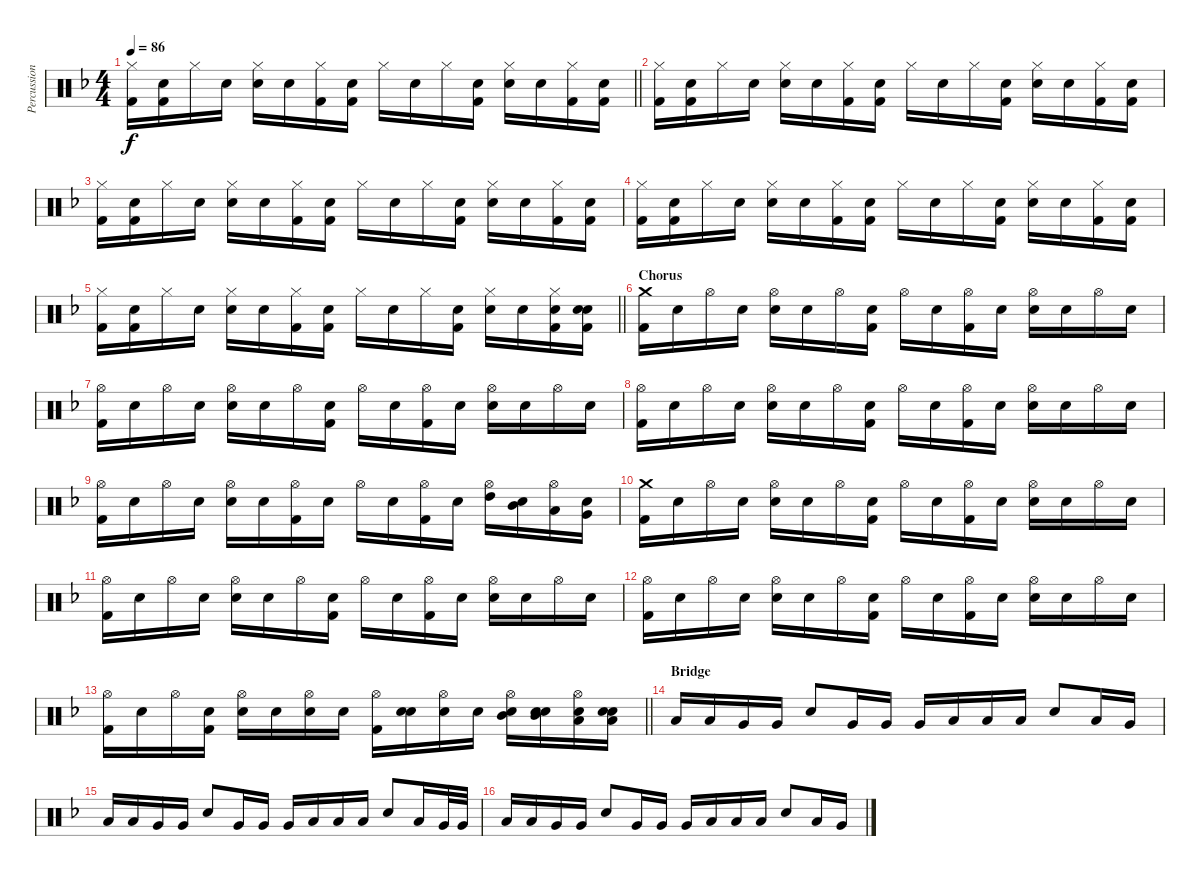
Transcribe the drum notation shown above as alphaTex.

\track ("Percussion" "Percussion") {instrument percussion}
\staff {score}
\articulation defaults
\ts (4 4)
\tempo 86
\clef neutral
\barLineRight lightlight
\ks f
("Hi-Hat (closed)" "Kick (hit) 2").16{dy f} ("Snare (hit)" "Kick (hit) 2").16 "Hi-Hat (closed)".16 "Snare (hit)".16 ("Hi-Hat (closed)" "Electric Snare (hit)").16 "Snare (hit)".16 ("Hi-Hat (closed)" "Kick (hit) 2").16 ("Snare (hit)" "Kick (hit) 2").16 "Hi-Hat (closed)".16 "Snare (hit)".16 "Hi-Hat (closed)".16 ("Snare (hit)" "Kick (hit) 2").16 ("Hi-Hat (closed)" "Electric Snare (hit)").16 "Snare (hit)".16 ("Hi-Hat (closed)" "Kick (hit) 2").16 ("Snare (hit)" "Kick (hit) 2").16 |
("Hi-Hat (closed)" "Kick (hit) 2").16 ("Snare (hit)" "Kick (hit) 2").16 "Hi-Hat (closed)".16 "Snare (hit)".16 ("Hi-Hat (closed)" "Electric Snare (hit)").16 "Snare (hit)".16 ("Hi-Hat (closed)" "Kick (hit) 2").16 ("Snare (hit)" "Kick (hit) 2").16 "Hi-Hat (closed)".16 "Snare (hit)".16 "Hi-Hat (closed)".16 ("Snare (hit)" "Kick (hit) 2").16 ("Hi-Hat (closed)" "Electric Snare (hit)").16 "Snare (hit)".16 ("Hi-Hat (closed)" "Kick (hit) 2").16 ("Snare (hit)" "Kick (hit) 2").16 |
("Hi-Hat (closed)" "Kick (hit) 2").16 ("Snare (hit)" "Kick (hit) 2").16 "Hi-Hat (closed)".16 "Snare (hit)".16 ("Hi-Hat (closed)" "Electric Snare (hit)").16 "Snare (hit)".16 ("Hi-Hat (closed)" "Kick (hit) 2").16 ("Snare (hit)" "Kick (hit) 2").16 "Hi-Hat (closed)".16 "Snare (hit)".16 "Hi-Hat (closed)".16 ("Snare (hit)" "Kick (hit) 2").16 ("Hi-Hat (closed)" "Electric Snare (hit)").16 "Snare (hit)".16 ("Hi-Hat (closed)" "Kick (hit) 2").16 ("Snare (hit)" "Kick (hit) 2").16 |
("Hi-Hat (closed)" "Kick (hit) 2").16 ("Snare (hit)" "Kick (hit) 2").16 "Hi-Hat (closed)".16 "Snare (hit)".16 ("Hi-Hat (closed)" "Electric Snare (hit)").16 "Snare (hit)".16 ("Hi-Hat (closed)" "Kick (hit) 2").16 ("Snare (hit)" "Kick (hit) 2").16 "Hi-Hat (closed)".16 "Snare (hit)".16 "Hi-Hat (closed)".16 ("Snare (hit)" "Kick (hit) 2").16 ("Hi-Hat (closed)" "Electric Snare (hit)").16 "Snare (hit)".16 ("Hi-Hat (closed)" "Kick (hit) 2").16 ("Snare (hit)" "Kick (hit) 2").16 |
\barLineRight lightlight
("Hi-Hat (closed)" "Kick (hit) 2").16 ("Snare (hit)" "Kick (hit) 2").16 "Hi-Hat (closed)".16 "Snare (hit)".16 ("Hi-Hat (closed)" "Electric Snare (hit)").16 "Snare (hit)".16 ("Hi-Hat (closed)" "Kick (hit) 2").16 ("Snare (hit)" "Kick (hit) 2").16 "Hi-Hat (closed)".16 "Snare (hit)".16 "Hi-Hat (closed)".16 ("Snare (hit)" "Kick (hit) 2").16 ("Hi-Hat (closed)" "Electric Snare (hit)").16 "Snare (hit)".16 ("Hi-Hat (closed)" "Electric Snare (hit)" "Kick (hit) 2").16 ("Snare (hit)" "Electric Snare (hit)" "Kick (hit) 2").16 |
\section ("" "Chorus")
("Crash medium (hit)" "Kick (hit) 2").16 "Snare (hit)".16 "Hi-Hat (open)".16 "Snare (hit)".16 ("Hi-Hat (open)" "Electric Snare (hit)").16 "Snare (hit)".16 "Hi-Hat (open)".16 ("Snare (hit)" "Kick (hit) 2").16 "Hi-Hat (open)".16 "Snare (hit)".16 ("Hi-Hat (open)" "Kick (hit) 2").16 "Snare (hit)".16 ("Hi-Hat (open)" "Electric Snare (hit)").16 "Snare (hit)".16 "Hi-Hat (open)".16 "Snare (hit)".16 |
("Hi-Hat (open)" "Kick (hit) 2").16 "Snare (hit)".16 "Hi-Hat (open)".16 "Snare (hit)".16 ("Hi-Hat (open)" "Electric Snare (hit)").16 "Snare (hit)".16 "Hi-Hat (open)".16 ("Snare (hit)" "Kick (hit) 2").16 "Hi-Hat (open)".16 "Snare (hit)".16 ("Hi-Hat (open)" "Kick (hit) 2").16 "Snare (hit)".16 ("Hi-Hat (open)" "Electric Snare (hit)").16 "Snare (hit)".16 "Hi-Hat (open)".16 "Snare (hit)".16 |
("Hi-Hat (open)" "Kick (hit) 2").16 "Snare (hit)".16 "Hi-Hat (open)".16 "Snare (hit)".16 ("Hi-Hat (open)" "Electric Snare (hit)").16 "Snare (hit)".16 "Hi-Hat (open)".16 ("Snare (hit)" "Kick (hit) 2").16 "Hi-Hat (open)".16 "Snare (hit)".16 ("Hi-Hat (open)" "Kick (hit) 2").16 "Snare (hit)".16 ("Hi-Hat (open)" "Electric Snare (hit)").16 "Snare (hit)".16 "Hi-Hat (open)".16 "Snare (hit)".16 |
("Hi-Hat (open)" "Kick (hit) 2").16 "Snare (hit)".16 "Hi-Hat (open)".16 "Snare (hit)".16 ("Hi-Hat (open)" "Electric Snare (hit)").16 "Snare (hit)".16 ("Hi-Hat (open)" "Kick (hit) 2").16 "Snare (hit)".16 "Hi-Hat (open)".16 "Snare (hit)".16 ("Hi-Hat (open)" "Kick (hit) 2").16 "Snare (hit)".16 ("Hi-Hat (open)" "High Tom (hit)").16 ("Snare (hit)" "Mid Tom (hit)").16 ("Hi-Hat (open)" "Low Tom (hit)").16 ("Snare (hit)" "Very Low Tom (hit)").16 |
("Crash medium (hit)" "Kick (hit) 2").16 "Snare (hit)".16 "Hi-Hat (open)".16 "Snare (hit)".16 ("Hi-Hat (open)" "Electric Snare (hit)").16 "Snare (hit)".16 "Hi-Hat (open)".16 ("Snare (hit)" "Kick (hit) 2").16 "Hi-Hat (open)".16 "Snare (hit)".16 ("Hi-Hat (open)" "Kick (hit) 2").16 "Snare (hit)".16 ("Hi-Hat (open)" "Electric Snare (hit)").16 "Snare (hit)".16 "Hi-Hat (open)".16 "Snare (hit)".16 |
("Hi-Hat (open)" "Kick (hit) 2").16 "Snare (hit)".16 "Hi-Hat (open)".16 "Snare (hit)".16 ("Hi-Hat (open)" "Electric Snare (hit)").16 "Snare (hit)".16 "Hi-Hat (open)".16 ("Snare (hit)" "Kick (hit) 2").16 "Hi-Hat (open)".16 "Snare (hit)".16 ("Hi-Hat (open)" "Kick (hit) 2").16 "Snare (hit)".16 ("Hi-Hat (open)" "Electric Snare (hit)").16 "Snare (hit)".16 "Hi-Hat (open)".16 "Snare (hit)".16 |
("Hi-Hat (open)" "Kick (hit) 2").16 "Snare (hit)".16 "Hi-Hat (open)".16 "Snare (hit)".16 ("Hi-Hat (open)" "Electric Snare (hit)").16 "Snare (hit)".16 "Hi-Hat (open)".16 ("Snare (hit)" "Kick (hit) 2").16 "Hi-Hat (open)".16 "Snare (hit)".16 ("Hi-Hat (open)" "Kick (hit) 2").16 "Snare (hit)".16 ("Hi-Hat (open)" "Electric Snare (hit)").16 "Snare (hit)".16 "Hi-Hat (open)".16 "Snare (hit)".16 |
\barLineRight lightlight
("Hi-Hat (open)" "Kick (hit) 2").16 "Snare (hit)".16 "Hi-Hat (open)".16 ("Snare (hit)" "Kick (hit) 2").16 ("Hi-Hat (open)" "Electric Snare (hit)").16 "Snare (hit)".16 ("Hi-Hat (open)" "Electric Snare (hit)").16 "Snare (hit)".16 ("Hi-Hat (open)" "Kick (hit) 2").16 ("Snare (hit)" "Electric Snare (hit)").16 ("Hi-Hat (open)" "Electric Snare (hit)").16 "Snare (hit)".16 ("Hi-Hat (open)" "Mid Tom (hit)" "Electric Snare (hit)").16 ("Snare (hit)" "Mid Tom (hit)" "Electric Snare (hit)").16 ("Hi-Hat (open)" "Low Tom (hit)" "Electric Snare (hit)").16 ("Snare (hit)" "Low Tom (hit)" "Electric Snare (hit)").16 |
\section ("" "Bridge")
"Low Tom (hit)".16 "Low Tom (hit)".16 "Very Low Tom (hit)".16 "Very Low Tom (hit)".16 "Electric Snare (hit)".8 "Very Low Tom (hit)".16 "Very Low Tom (hit)".16 "Very Low Tom (hit)".16 "Low Tom (hit)".16 "Low Tom (hit)".16 "Low Tom (hit)".16 "Electric Snare (hit)".8 "Low Tom (hit)".16 "Very Low Tom (hit)".16 |
"Low Tom (hit)".16 "Low Tom (hit)".16 "Very Low Tom (hit)".16 "Very Low Tom (hit)".16 "Electric Snare (hit)".8 "Very Low Tom (hit)".16 "Very Low Tom (hit)".16 "Very Low Tom (hit)".16 "Low Tom (hit)".16 "Low Tom (hit)".16 "Low Tom (hit)".16 "Electric Snare (hit)".8 "Low Tom (hit)".16 "Very Low Tom (hit)".32 "Very Low Tom (hit)".32 |
"Low Tom (hit)".16 "Low Tom (hit)".16 "Very Low Tom (hit)".16 "Very Low Tom (hit)".16 "Electric Snare (hit)".8 "Very Low Tom (hit)".16 "Very Low Tom (hit)".16 "Very Low Tom (hit)".16 "Low Tom (hit)".16 "Low Tom (hit)".16 "Low Tom (hit)".16 "Electric Snare (hit)".8 "Low Tom (hit)".16 "Very Low Tom (hit)".16
